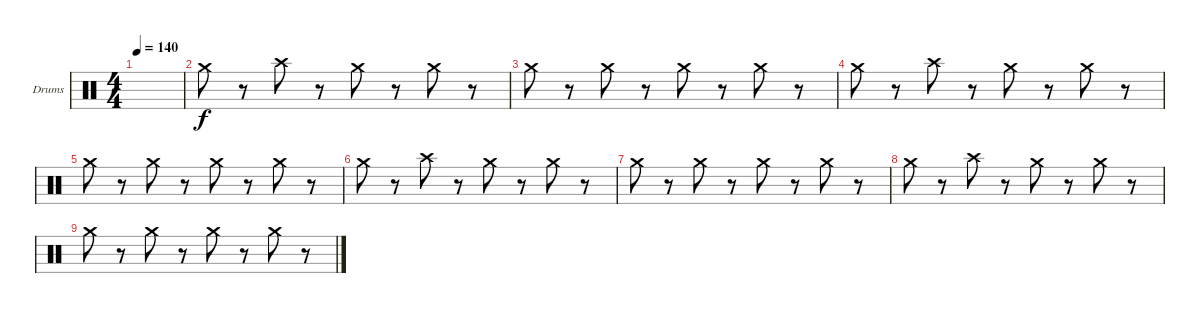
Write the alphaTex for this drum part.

\defaultSystemsLayout 4
\bracketExtendMode groupsimilarinstruments
\firstSystemTrackNameOrientation horizontal
\otherSystemsTrackNameOrientation horizontal
\track ("Drumkit" "Drums") {instrument percussion}
\staff {score}
\articulation defaults
\ts (4 4)
\tempo 140
\clef neutral
\scale
0.333333
\ks c
|
\scale
0.333333 "Crash medium (hit)".8 r.8 "Crash high (hit)".8 r.8 "Crash medium (hit)".8 r.8 "Crash medium (hit)".8 r.8 |
\scale
0.333333 "Crash medium (hit)".8 r.8 "Crash medium (hit)".8 r.8 "Crash medium (hit)".8 r.8 "Crash medium (hit)".8 r.8 |
\scale
0.333333 "Crash medium (hit)".8 r.8 "Crash high (hit)".8 r.8 "Crash medium (hit)".8 r.8 "Crash medium (hit)".8 r.8 |
\scale
0.333333 "Crash medium (hit)".8 r.8 "Crash medium (hit)".8 r.8 "Crash medium (hit)".8 r.8 "Crash medium (hit)".8 r.8 |
\scale
0.333333 "Crash medium (hit)".8 r.8 "Crash high (hit)".8 r.8 "Crash medium (hit)".8 r.8 "Crash medium (hit)".8 r.8 |
"Crash medium (hit)".8 r.8 "Crash medium (hit)".8 r.8 "Crash medium (hit)".8 r.8 "Crash medium (hit)".8 r.8 |
"Crash medium (hit)".8 r.8 "Crash high (hit)".8 r.8 "Crash medium (hit)".8 r.8 "Crash medium (hit)".8 r.8 |
"Crash medium (hit)".8 r.8 "Crash medium (hit)".8 r.8 "Crash medium (hit)".8 r.8 "Crash medium (hit)".8 r.8
